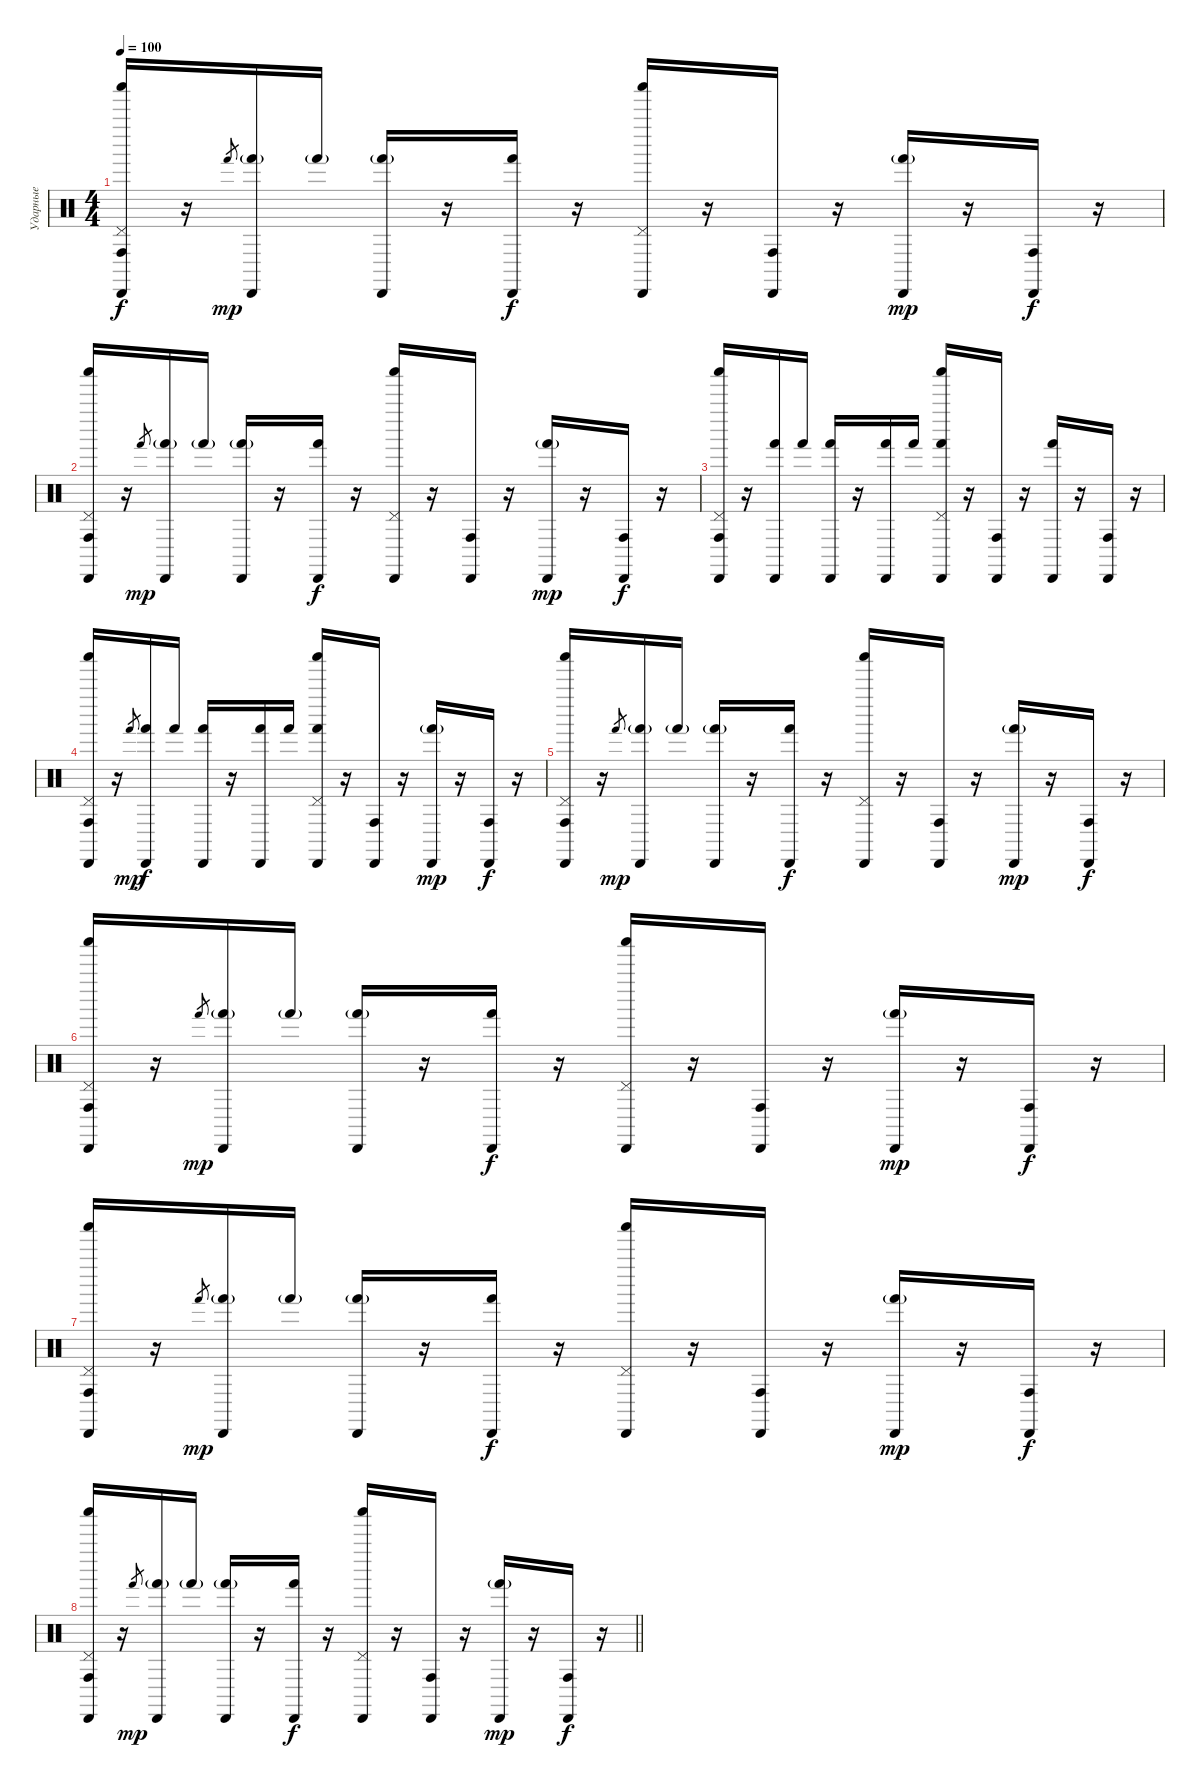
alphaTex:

\track ("Ударные" "Ударные") {instrument percussion}
\staff {score}
\articulation defaults
\ts (4 4)
\tempo 100
\clef neutral
\ks c
("Pedal Hi-Hat (hit)" "Shaker (hit)" "Conga high (hit)" "Cabasa (hit)").16{dy f} r.16 "Hand (hit)".8{gr dy mp} ("Hand (hit)"{g} "Cabasa (hit)").16 "Hand (hit)"{g}.16 ("Hand (hit)"{g} "Cabasa (hit)").16 r.16 ("Hand (hit)" "Cabasa (hit)").16{dy f} r.16 ("Pedal Hi-Hat (hit)" "Shaker (hit)" "Cabasa (hit)").16 r.16 ("Conga high (hit)" "Cabasa (hit)").16 r.16 ("Hand (hit)"{g} "Cabasa (hit)").16{dy mp} r.16 ("Conga high (hit)" "Cabasa (hit)").16{dy f} r.16 |
("Pedal Hi-Hat (hit)" "Shaker (hit)" "Conga high (hit)" "Cabasa (hit)").16 r.16 "Hand (hit)".8{gr dy mp} ("Hand (hit)"{g} "Cabasa (hit)").16 "Hand (hit)"{g}.16 ("Hand (hit)"{g} "Cabasa (hit)").16 r.16 ("Hand (hit)" "Cabasa (hit)").16{dy f} r.16 ("Pedal Hi-Hat (hit)" "Shaker (hit)" "Cabasa (hit)").16 r.16 ("Conga high (hit)" "Cabasa (hit)").16 r.16 ("Hand (hit)"{g} "Cabasa (hit)").16{dy mp} r.16 ("Conga high (hit)" "Cabasa (hit)").16{dy f} r.16 |
("Pedal Hi-Hat (hit)" "Shaker (hit)" "Conga high (hit)" "Cabasa (hit)").16 r.16 ("Hand (hit)" "Cabasa (hit)").16 "Hand (hit)".16 ("Hand (hit)" "Cabasa (hit)").16 r.16 ("Hand (hit)" "Cabasa (hit)").16 "Hand (hit)".16 ("Pedal Hi-Hat (hit)" "Shaker (hit)" "Hand (hit)" "Cabasa (hit)").16 r.16 ("Conga high (hit)" "Cabasa (hit)").16 r.16 ("Hand (hit)" "Cabasa (hit)").16 r.16 ("Conga high (hit)" "Cabasa (hit)").16 r.16 |
("Pedal Hi-Hat (hit)" "Shaker (hit)" "Conga high (hit)" "Cabasa (hit)").16 r.16 "Hand (hit)".8{gr dy mp} ("Hand (hit)" "Cabasa (hit)").16{dy f} "Hand (hit)".16 ("Hand (hit)" "Cabasa (hit)").16 r.16 ("Hand (hit)" "Cabasa (hit)").16 "Hand (hit)".16 ("Pedal Hi-Hat (hit)" "Shaker (hit)" "Hand (hit)" "Cabasa (hit)").16 r.16 ("Conga high (hit)" "Cabasa (hit)").16 r.16 ("Hand (hit)"{g} "Cabasa (hit)").16{dy mp} r.16 ("Conga high (hit)" "Cabasa (hit)").16{dy f} r.16 |
("Pedal Hi-Hat (hit)" "Shaker (hit)" "Conga high (hit)" "Cabasa (hit)").16 r.16 "Hand (hit)".8{gr dy mp} ("Hand (hit)"{g} "Cabasa (hit)").16 "Hand (hit)"{g}.16 ("Hand (hit)"{g} "Cabasa (hit)").16 r.16 ("Hand (hit)" "Cabasa (hit)").16{dy f} r.16 ("Pedal Hi-Hat (hit)" "Shaker (hit)" "Cabasa (hit)").16 r.16 ("Conga high (hit)" "Cabasa (hit)").16 r.16 ("Hand (hit)"{g} "Cabasa (hit)").16{dy mp} r.16 ("Conga high (hit)" "Cabasa (hit)").16{dy f} r.16 |
("Pedal Hi-Hat (hit)" "Shaker (hit)" "Conga high (hit)" "Cabasa (hit)").16 r.16 "Hand (hit)".8{gr dy mp} ("Hand (hit)"{g} "Cabasa (hit)").16 "Hand (hit)"{g}.16 ("Hand (hit)"{g} "Cabasa (hit)").16 r.16 ("Hand (hit)" "Cabasa (hit)").16{dy f} r.16 ("Pedal Hi-Hat (hit)" "Shaker (hit)" "Cabasa (hit)").16 r.16 ("Conga high (hit)" "Cabasa (hit)").16 r.16 ("Hand (hit)"{g} "Cabasa (hit)").16{dy mp} r.16 ("Conga high (hit)" "Cabasa (hit)").16{dy f} r.16 |
("Pedal Hi-Hat (hit)" "Shaker (hit)" "Conga high (hit)" "Cabasa (hit)").16 r.16 "Hand (hit)".8{gr dy mp} ("Hand (hit)"{g} "Cabasa (hit)").16 "Hand (hit)"{g}.16 ("Hand (hit)"{g} "Cabasa (hit)").16 r.16 ("Hand (hit)" "Cabasa (hit)").16{dy f} r.16 ("Pedal Hi-Hat (hit)" "Shaker (hit)" "Cabasa (hit)").16 r.16 ("Conga high (hit)" "Cabasa (hit)").16 r.16 ("Hand (hit)"{g} "Cabasa (hit)").16{dy mp} r.16 ("Conga high (hit)" "Cabasa (hit)").16{dy f} r.16 |
\barLineRight lightlight
("Pedal Hi-Hat (hit)" "Shaker (hit)" "Conga high (hit)" "Cabasa (hit)").16 r.16 "Hand (hit)".8{gr dy mp} ("Hand (hit)"{g} "Cabasa (hit)").16 "Hand (hit)"{g}.16 ("Hand (hit)"{g} "Cabasa (hit)").16 r.16 ("Hand (hit)" "Cabasa (hit)").16{dy f} r.16 ("Pedal Hi-Hat (hit)" "Shaker (hit)" "Cabasa (hit)").16 r.16 ("Conga high (hit)" "Cabasa (hit)").16 r.16 ("Hand (hit)"{g} "Cabasa (hit)").16{dy mp} r.16 ("Conga high (hit)" "Cabasa (hit)").16{dy f} r.16
